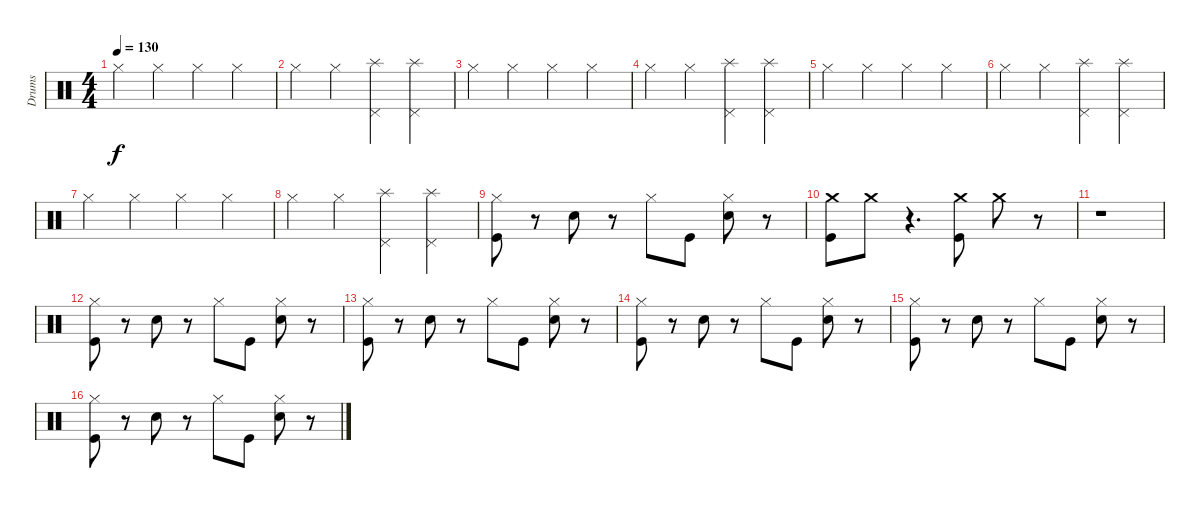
\track ("Drums" "Drums") {instrument percussion}
\staff {score}
\articulation defaults
\ts (4 4)
\tempo 130
\clef neutral
\ks c "Hi-Hat (closed)".4{dy f} "Hi-Hat (closed)".4 "Hi-Hat (closed)".4 "Hi-Hat (closed)".4
|
"Hi-Hat (closed)".4 "Hi-Hat (closed)".4 ("Splash (hit)" "Pedal Hi-Hat (hit)").4 ("Splash (hit)" "Pedal Hi-Hat (hit)").4 |
"Hi-Hat (closed)".4 "Hi-Hat (closed)".4 "Hi-Hat (closed)".4 "Hi-Hat (closed)".4 |
"Hi-Hat (closed)".4 "Hi-Hat (closed)".4 ("Splash (hit)" "Pedal Hi-Hat (hit)").4 ("Splash (hit)" "Pedal Hi-Hat (hit)").4 |
"Hi-Hat (closed)".4 "Hi-Hat (closed)".4 "Hi-Hat (closed)".4 "Hi-Hat (closed)".4 |
"Hi-Hat (closed)".4 "Hi-Hat (closed)".4 ("Splash (hit)" "Pedal Hi-Hat (hit)").4 ("Splash (hit)" "Pedal Hi-Hat (hit)").4 |
"Hi-Hat (closed)".4 "Hi-Hat (closed)".4 "Hi-Hat (closed)".4 "Hi-Hat (closed)".4 |
"Hi-Hat (closed)".4 "Hi-Hat (closed)".4 ("Splash (hit)" "Pedal Hi-Hat (hit)").4 ("Splash (hit)" "Pedal Hi-Hat (hit)").4 |
("Hi-Hat (closed)" "Kick (hit)").8 r.8 "Snare (hit) 2".8 r.8 "Hi-Hat (closed)".8 "Kick (hit)".8 ("Hi-Hat (closed)" "Snare (hit) 2").8 r.8 |
("Crash medium (hit)" "Kick (hit)").8 "Crash medium (hit)".8 r.4{d} ("Crash medium (hit)" "Kick (hit)").8 "Crash medium (hit)".8 r.8 |
r.1 |
("Hi-Hat (closed)" "Kick (hit)").8 r.8 "Snare (hit) 2".8 r.8 "Hi-Hat (closed)".8 "Kick (hit)".8 ("Hi-Hat (closed)" "Snare (hit) 2").8 r.8 |
("Hi-Hat (closed)" "Kick (hit)").8 r.8 "Snare (hit) 2".8 r.8 "Hi-Hat (closed)".8 "Kick (hit)".8 ("Hi-Hat (closed)" "Snare (hit) 2").8 r.8 |
("Hi-Hat (closed)" "Kick (hit)").8 r.8 "Snare (hit) 2".8 r.8 "Hi-Hat (closed)".8 "Kick (hit)".8 ("Hi-Hat (closed)" "Snare (hit) 2").8 r.8 |
("Hi-Hat (closed)" "Kick (hit)").8 r.8 "Snare (hit) 2".8 r.8 "Hi-Hat (closed)".8 "Kick (hit)".8 ("Hi-Hat (closed)" "Snare (hit) 2").8 r.8 |
("Hi-Hat (closed)" "Kick (hit)").8 r.8 "Snare (hit) 2".8 r.8 "Hi-Hat (closed)".8 "Kick (hit)".8 ("Hi-Hat (closed)" "Snare (hit) 2").8 r.8
